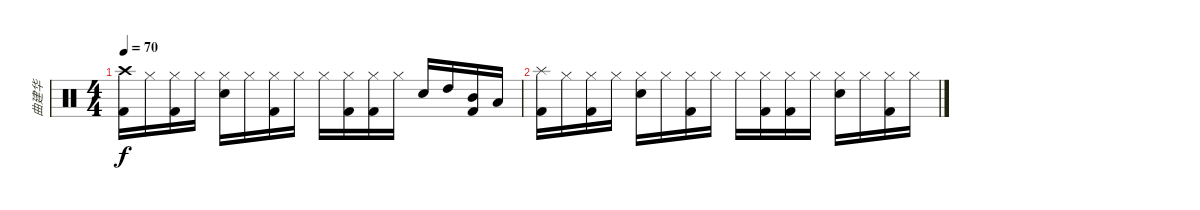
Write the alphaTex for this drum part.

\track ("曲建华" "曲建华") {instrument percussion}
\staff {score}
\articulation defaults
\ts (4 4)
\tempo 70
\clef neutral
\ks c
("Crash high (hit)" "Kick (hit) 2").16{dy f} "Hi-Hat (closed)".16 ("Hi-Hat (closed)" "Kick (hit) 2").16 "Hi-Hat (closed)".16 ("Hi-Hat (closed)" "Electric Snare (hit)").16 "Hi-Hat (closed)".16 ("Hi-Hat (closed)" "Kick (hit) 2").16 "Hi-Hat (closed)".16 "Hi-Hat (closed)".16 ("Hi-Hat (closed)" "Kick (hit) 2").16 ("Hi-Hat (closed)" "Kick (hit) 2").16 "Hi-Hat (closed)".16 "Electric Snare (hit)".16 "High Tom (hit)".16 ("Mid Tom (hit)" "Kick (hit) 2").16 "Low Tom (hit)".16 |
("Splash (hit)" "Kick (hit) 2").16 "Hi-Hat (closed)".16 ("Hi-Hat (closed)" "Kick (hit) 2").16 "Hi-Hat (closed)".16 ("Hi-Hat (closed)" "Electric Snare (hit)").16 "Hi-Hat (closed)".16 ("Hi-Hat (closed)" "Kick (hit) 2").16 "Hi-Hat (closed)".16 "Hi-Hat (closed)".16 ("Hi-Hat (closed)" "Kick (hit) 2").16 ("Hi-Hat (closed)" "Kick (hit) 2").16 "Hi-Hat (closed)".16 ("Hi-Hat (closed)" "Electric Snare (hit)").16 "Hi-Hat (closed)".16 ("Hi-Hat (closed)" "Kick (hit) 2").16 "Hi-Hat (closed)".16
